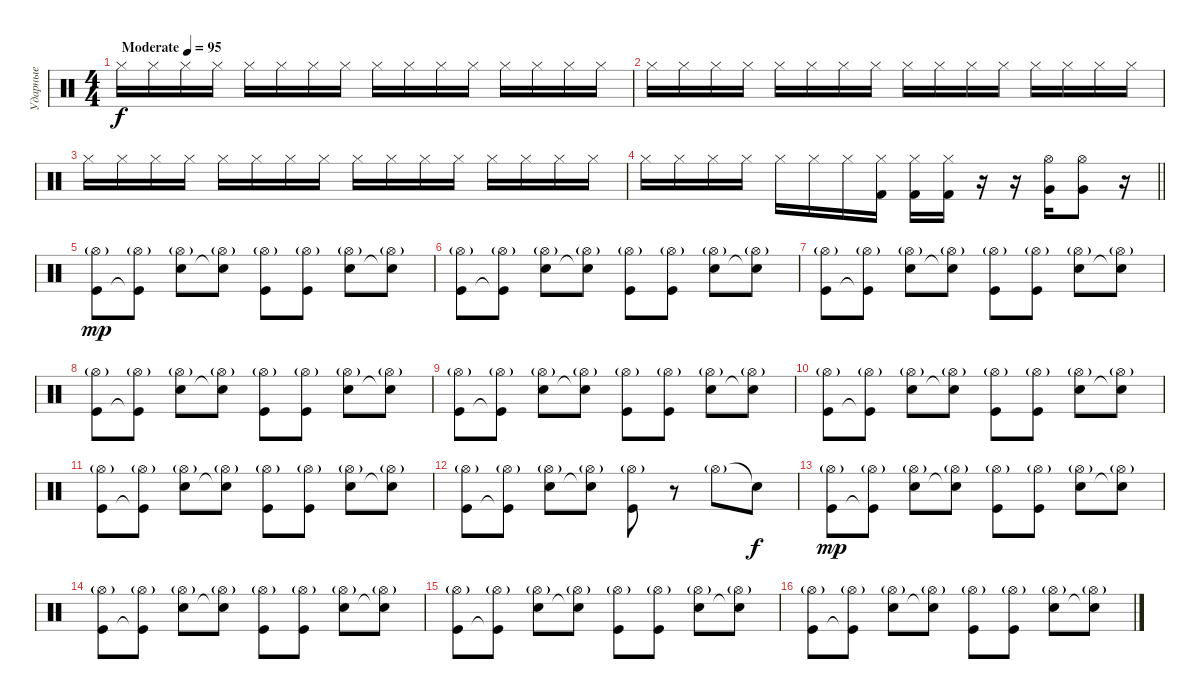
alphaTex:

\track ("Ударные" "Ударные") {instrument percussion}
\staff {score}
\articulation defaults
\ts (4 4)
\tempo (95 "Moderate")
\clef neutral
\ks c "Hi-Hat (closed)".16{dy f volume 0} "Hi-Hat (closed)".16{volume 13} "Hi-Hat (closed)".16 "Hi-Hat (closed)".16 "Hi-Hat (closed)".16 "Hi-Hat (closed)".16 "Hi-Hat (closed)".16 "Hi-Hat (closed)".16 "Hi-Hat (closed)".16 "Hi-Hat (closed)".16 "Hi-Hat (closed)".16 "Hi-Hat (closed)".16 "Hi-Hat (closed)".16 "Hi-Hat (closed)".16 "Hi-Hat (closed)".16 "Hi-Hat (closed)".16
|
"Hi-Hat (closed)".16 "Hi-Hat (closed)".16 "Hi-Hat (closed)".16 "Hi-Hat (closed)".16 "Hi-Hat (closed)".16 "Hi-Hat (closed)".16 "Hi-Hat (closed)".16 "Hi-Hat (closed)".16 "Hi-Hat (closed)".16 "Hi-Hat (closed)".16 "Hi-Hat (closed)".16 "Hi-Hat (closed)".16 "Hi-Hat (closed)".16 "Hi-Hat (closed)".16 "Hi-Hat (closed)".16 "Hi-Hat (closed)".16 |
"Hi-Hat (closed)".16 "Hi-Hat (closed)".16 "Hi-Hat (closed)".16 "Hi-Hat (closed)".16 "Hi-Hat (closed)".16 "Hi-Hat (closed)".16 "Hi-Hat (closed)".16 "Hi-Hat (closed)".16 "Hi-Hat (closed)".16 "Hi-Hat (closed)".16 "Hi-Hat (closed)".16 "Hi-Hat (closed)".16 "Hi-Hat (closed)".16 "Hi-Hat (closed)".16 "Hi-Hat (closed)".16 "Hi-Hat (closed)".16 |
\barLineRight lightlight "Hi-Hat (closed)".16 "Hi-Hat (closed)".16 "Hi-Hat (closed)".16 "Hi-Hat (closed)".16 "Hi-Hat (closed)".16 "Hi-Hat (closed)".16 "Hi-Hat (closed)".16
("Hi-Hat (closed)" "Kick (hit) 2").16 ("Hi-Hat (closed)" "Kick (hit) 2").16 ("Hi-Hat (closed)" "Kick (hit) 2").16 r.16 r.16 ("Very Low Tom (hit)" "Hi-Hat (open)").16 ("Hi-Hat (open)" "Very Low Tom (hit)").8 r.16 |
("Hi-Hat (open)"{g} "Kick (hit)").8{dy mp} ("Hi-Hat (open)"{g} "Kick (hit)"{t}).8 ("Hi-Hat (open)"{g} "Snare (hit) 2").8 ("Hi-Hat (open)"{g} "Snare (hit) 2"{t}).8 ("Hi-Hat (open)"{g} "Kick (hit)").8 ("Hi-Hat (open)"{g} "Kick (hit)").8 ("Hi-Hat (open)"{g} "Snare (hit) 2").8 ("Hi-Hat (open)"{g} "Snare (hit) 2"{t}).8 |
("Hi-Hat (open)"{g} "Kick (hit)").8 ("Hi-Hat (open)"{g} "Kick (hit)"{t}).8 ("Hi-Hat (open)"{g} "Snare (hit) 2").8 ("Hi-Hat (open)"{g} "Snare (hit) 2"{t}).8 ("Hi-Hat (open)"{g} "Kick (hit)").8 ("Hi-Hat (open)"{g} "Kick (hit)").8 ("Hi-Hat (open)"{g} "Snare (hit) 2").8 ("Hi-Hat (open)"{g} "Snare (hit) 2"{t}).8 |
("Hi-Hat (open)"{g} "Kick (hit)").8 ("Hi-Hat (open)"{g} "Kick (hit)"{t}).8 ("Hi-Hat (open)"{g} "Snare (hit) 2").8 ("Hi-Hat (open)"{g} "Snare (hit) 2"{t}).8 ("Hi-Hat (open)"{g} "Kick (hit)").8 ("Hi-Hat (open)"{g} "Kick (hit)").8 ("Hi-Hat (open)"{g} "Snare (hit) 2").8 ("Hi-Hat (open)"{g} "Snare (hit) 2"{t}).8 |
("Hi-Hat (open)"{g} "Kick (hit)").8 ("Hi-Hat (open)"{g} "Kick (hit)"{t}).8 ("Hi-Hat (open)"{g} "Snare (hit) 2").8 ("Hi-Hat (open)"{g} "Snare (hit) 2"{t}).8 ("Hi-Hat (open)"{g} "Kick (hit)").8 ("Hi-Hat (open)"{g} "Kick (hit)").8 ("Hi-Hat (open)"{g} "Snare (hit) 2").8 ("Hi-Hat (open)"{g} "Snare (hit) 2"{t}).8 |
("Hi-Hat (open)"{g} "Kick (hit)").8 ("Hi-Hat (open)"{g} "Kick (hit)"{t}).8 ("Hi-Hat (open)"{g} "Snare (hit) 2").8 ("Hi-Hat (open)"{g} "Snare (hit) 2"{t}).8 ("Hi-Hat (open)"{g} "Kick (hit)").8 ("Hi-Hat (open)"{g} "Kick (hit)").8 ("Hi-Hat (open)"{g} "Snare (hit) 2").8 ("Hi-Hat (open)"{g} "Snare (hit) 2"{t}).8 |
("Hi-Hat (open)"{g} "Kick (hit)").8 ("Hi-Hat (open)"{g} "Kick (hit)"{t}).8 ("Hi-Hat (open)"{g} "Snare (hit) 2").8 ("Hi-Hat (open)"{g} "Snare (hit) 2"{t}).8 ("Hi-Hat (open)"{g} "Kick (hit)").8 ("Hi-Hat (open)"{g} "Kick (hit)").8 ("Hi-Hat (open)"{g} "Snare (hit) 2").8 ("Hi-Hat (open)"{g} "Snare (hit) 2"{t}).8 |
("Hi-Hat (open)"{g} "Kick (hit)").8 ("Hi-Hat (open)"{g} "Kick (hit)"{t}).8 ("Hi-Hat (open)"{g} "Snare (hit) 2").8 ("Hi-Hat (open)"{g} "Snare (hit) 2"{t}).8 ("Hi-Hat (open)"{g} "Kick (hit)").8 ("Hi-Hat (open)"{g} "Kick (hit)").8 ("Hi-Hat (open)"{g} "Snare (hit) 2").8 ("Hi-Hat (open)"{g} "Snare (hit) 2"{t}).8 |
("Hi-Hat (open)"{g} "Kick (hit)").8 ("Hi-Hat (open)"{g} "Kick (hit)"{t}).8 ("Hi-Hat (open)"{g} "Snare (hit) 2").8 ("Hi-Hat (open)"{g} "Snare (hit) 2"{t}).8 ("Hi-Hat (open)"{g} "Kick (hit)").8 r.8 "Hi-Hat (open)"{g}.8 "Snare (hit)"{t}.8{dy f} |
("Hi-Hat (open)"{g} "Kick (hit)").8{dy mp} ("Hi-Hat (open)"{g} "Kick (hit)"{t}).8 ("Hi-Hat (open)"{g} "Snare (hit) 2").8 ("Hi-Hat (open)"{g} "Snare (hit) 2"{t}).8 ("Hi-Hat (open)"{g} "Kick (hit)").8 ("Hi-Hat (open)"{g} "Kick (hit)").8 ("Hi-Hat (open)"{g} "Snare (hit) 2").8 ("Hi-Hat (open)"{g} "Snare (hit) 2"{t}).8 |
("Hi-Hat (open)"{g} "Kick (hit)").8 ("Hi-Hat (open)"{g} "Kick (hit)"{t}).8 ("Hi-Hat (open)"{g} "Snare (hit) 2").8 ("Hi-Hat (open)"{g} "Snare (hit) 2"{t}).8 ("Hi-Hat (open)"{g} "Kick (hit)").8 ("Hi-Hat (open)"{g} "Kick (hit)").8 ("Hi-Hat (open)"{g} "Snare (hit) 2").8 ("Hi-Hat (open)"{g} "Snare (hit) 2"{t}).8 |
("Hi-Hat (open)"{g} "Kick (hit)").8 ("Hi-Hat (open)"{g} "Kick (hit)"{t}).8 ("Hi-Hat (open)"{g} "Snare (hit) 2").8 ("Hi-Hat (open)"{g} "Snare (hit) 2"{t}).8 ("Hi-Hat (open)"{g} "Kick (hit)").8 ("Hi-Hat (open)"{g} "Kick (hit)").8 ("Hi-Hat (open)"{g} "Snare (hit) 2").8 ("Hi-Hat (open)"{g} "Snare (hit) 2"{t}).8 |
("Hi-Hat (open)"{g} "Kick (hit)").8 ("Hi-Hat (open)"{g} "Kick (hit)"{t}).8 ("Hi-Hat (open)"{g} "Snare (hit) 2").8 ("Hi-Hat (open)"{g} "Snare (hit) 2"{t}).8 ("Hi-Hat (open)"{g} "Kick (hit)").8 ("Hi-Hat (open)"{g} "Kick (hit)").8 ("Hi-Hat (open)"{g} "Snare (hit) 2").8 ("Hi-Hat (open)"{g} "Snare (hit) 2"{t}).8
